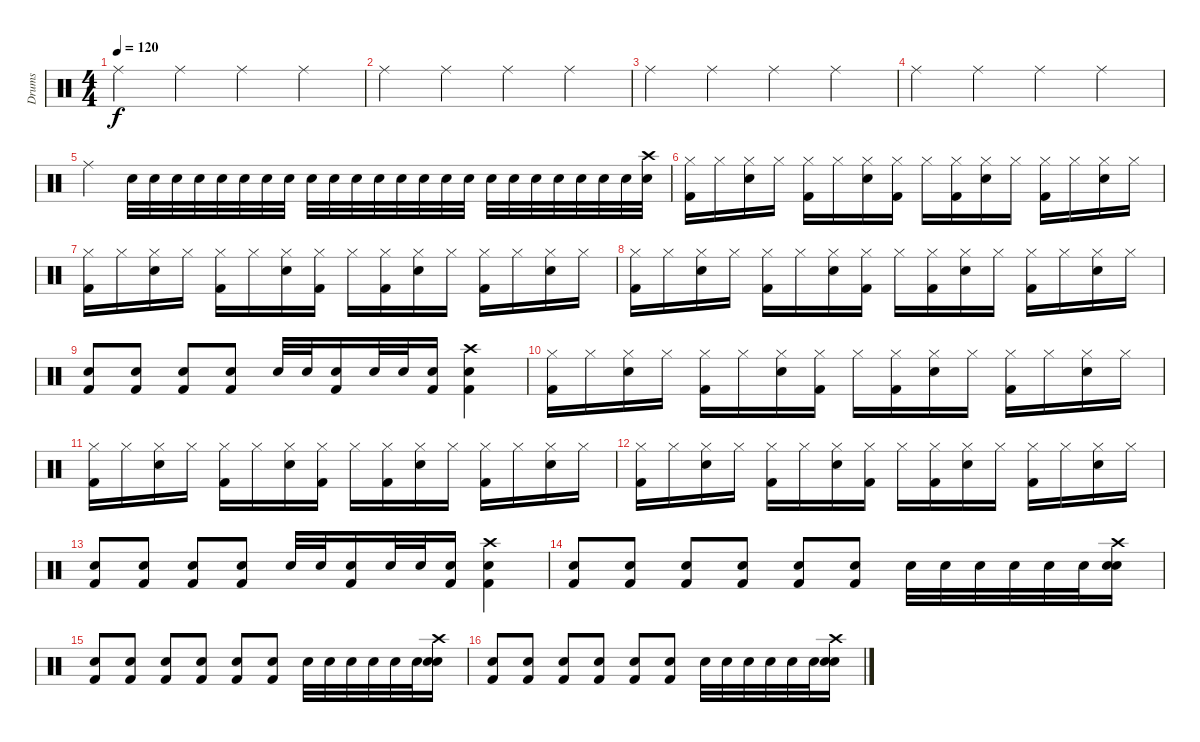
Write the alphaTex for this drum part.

\track ("Drums" "Drums") {instrument percussion}
\staff {score}
\articulation defaults
\ts (4 4)
\tempo 120
\clef neutral
\ks c "Ride (middle)".4{dy f} "Ride (middle)".4 "Ride (middle)".4 "Ride (middle)".4
|
"Ride (middle)".4 "Ride (middle)".4 "Ride (middle)".4 "Ride (middle)".4 |
"Ride (middle)".4 "Ride (middle)".4 "Ride (middle)".4 "Ride (middle)".4 |
"Ride (middle)".4 "Ride (middle)".4 "Ride (middle)".4 "Ride (middle)".4 |
"Ride (middle)".4 "Snare (hit) 2".32{volume 4} "Snare (hit) 2".32{volume 6} "Snare (hit) 2".32{volume 8} "Snare (hit) 2".32{volume 9} "Snare (hit) 2".32{volume 10} "Snare (hit) 2".32{volume 12} "Snare (hit) 2".32{volume 14} "Snare (hit) 2".32{volume 16} "Snare (hit) 2".32 "Snare (hit) 2".32 "Snare (hit) 2".32 "Snare (hit) 2".32 "Snare (hit) 2".32 "Snare (hit) 2".32 "Snare (hit) 2".32 "Snare (hit) 2".32 "Snare (hit) 2".32 "Snare (hit) 2".32 "Snare (hit) 2".32 "Snare (hit) 2".32 "Snare (hit) 2".32 "Snare (hit) 2".32 "Snare (hit) 2".32 ("Crash high (hit)" "Snare (hit) 2").32 |
("Hi-Hat (closed)" "Kick (hit) 2").16 "Hi-Hat (closed)".16 ("Hi-Hat (closed)" "Electric Snare (hit)").16 "Hi-Hat (closed)".16 ("Hi-Hat (closed)" "Kick (hit) 2").16 "Hi-Hat (closed)".16 ("Hi-Hat (closed)" "Electric Snare (hit)").16 ("Hi-Hat (closed)" "Kick (hit) 2").16 "Hi-Hat (closed)".16 ("Hi-Hat (closed)" "Kick (hit) 2").16 ("Hi-Hat (closed)" "Electric Snare (hit)").16 "Hi-Hat (closed)".16 ("Hi-Hat (closed)" "Kick (hit) 2").16 "Hi-Hat (closed)".16 ("Hi-Hat (closed)" "Electric Snare (hit)").16 "Hi-Hat (closed)".16 |
("Hi-Hat (closed)" "Kick (hit) 2").16 "Hi-Hat (closed)".16 ("Hi-Hat (closed)" "Electric Snare (hit)").16 "Hi-Hat (closed)".16 ("Hi-Hat (closed)" "Kick (hit) 2").16 "Hi-Hat (closed)".16 ("Hi-Hat (closed)" "Electric Snare (hit)").16 ("Hi-Hat (closed)" "Kick (hit) 2").16 "Hi-Hat (closed)".16 ("Hi-Hat (closed)" "Kick (hit) 2").16 ("Hi-Hat (closed)" "Electric Snare (hit)").16 "Hi-Hat (closed)".16 ("Hi-Hat (closed)" "Kick (hit) 2").16 "Hi-Hat (closed)".16 ("Hi-Hat (closed)" "Electric Snare (hit)").16 "Hi-Hat (closed)".16 |
("Hi-Hat (closed)" "Kick (hit) 2").16 "Hi-Hat (closed)".16 ("Hi-Hat (closed)" "Electric Snare (hit)").16 "Hi-Hat (closed)".16 ("Hi-Hat (closed)" "Kick (hit) 2").16 "Hi-Hat (closed)".16 ("Hi-Hat (closed)" "Electric Snare (hit)").16 ("Hi-Hat (closed)" "Kick (hit) 2").16 "Hi-Hat (closed)".16 ("Hi-Hat (closed)" "Kick (hit) 2").16 ("Hi-Hat (closed)" "Electric Snare (hit)").16 "Hi-Hat (closed)".16 ("Hi-Hat (closed)" "Kick (hit) 2").16 "Hi-Hat (closed)".16 ("Hi-Hat (closed)" "Electric Snare (hit)").16 "Hi-Hat (closed)".16 |
("Electric Snare (hit)" "Kick (hit) 2").8 ("Electric Snare (hit)" "Kick (hit) 2").8 ("Electric Snare (hit)" "Kick (hit) 2").8 ("Electric Snare (hit)" "Kick (hit) 2").8 "Snare (hit) 2".32 "Snare (hit) 2".32 ("Electric Snare (hit)" "Kick (hit) 2").16 "Snare (hit) 2".32 "Snare (hit) 2".32 ("Electric Snare (hit)" "Kick (hit) 2").16 ("Crash high (hit)" "Electric Snare (hit)" "Kick (hit) 2").4 |
("Hi-Hat (closed)" "Kick (hit) 2").16 "Hi-Hat (closed)".16 ("Hi-Hat (closed)" "Electric Snare (hit)").16 "Hi-Hat (closed)".16 ("Hi-Hat (closed)" "Kick (hit) 2").16 "Hi-Hat (closed)".16 ("Hi-Hat (closed)" "Electric Snare (hit)").16 ("Hi-Hat (closed)" "Kick (hit) 2").16 "Hi-Hat (closed)".16 ("Hi-Hat (closed)" "Kick (hit) 2").16 ("Hi-Hat (closed)" "Electric Snare (hit)").16 "Hi-Hat (closed)".16 ("Hi-Hat (closed)" "Kick (hit) 2").16 "Hi-Hat (closed)".16 ("Hi-Hat (closed)" "Electric Snare (hit)").16 "Hi-Hat (closed)".16 |
("Hi-Hat (closed)" "Kick (hit) 2").16 "Hi-Hat (closed)".16 ("Hi-Hat (closed)" "Electric Snare (hit)").16 "Hi-Hat (closed)".16 ("Hi-Hat (closed)" "Kick (hit) 2").16 "Hi-Hat (closed)".16 ("Hi-Hat (closed)" "Electric Snare (hit)").16 ("Hi-Hat (closed)" "Kick (hit) 2").16 "Hi-Hat (closed)".16 ("Hi-Hat (closed)" "Kick (hit) 2").16 ("Hi-Hat (closed)" "Electric Snare (hit)").16 "Hi-Hat (closed)".16 ("Hi-Hat (closed)" "Kick (hit) 2").16 "Hi-Hat (closed)".16 ("Hi-Hat (closed)" "Electric Snare (hit)").16 "Hi-Hat (closed)".16 |
("Hi-Hat (closed)" "Kick (hit) 2").16 "Hi-Hat (closed)".16 ("Hi-Hat (closed)" "Electric Snare (hit)").16 "Hi-Hat (closed)".16 ("Hi-Hat (closed)" "Kick (hit) 2").16 "Hi-Hat (closed)".16 ("Hi-Hat (closed)" "Electric Snare (hit)").16 ("Hi-Hat (closed)" "Kick (hit) 2").16 "Hi-Hat (closed)".16 ("Hi-Hat (closed)" "Kick (hit) 2").16 ("Hi-Hat (closed)" "Electric Snare (hit)").16 "Hi-Hat (closed)".16 ("Hi-Hat (closed)" "Kick (hit) 2").16 "Hi-Hat (closed)".16 ("Hi-Hat (closed)" "Electric Snare (hit)").16 "Hi-Hat (closed)".16 |
("Electric Snare (hit)" "Kick (hit) 2").8 ("Electric Snare (hit)" "Kick (hit) 2").8 ("Electric Snare (hit)" "Kick (hit) 2").8 ("Electric Snare (hit)" "Kick (hit) 2").8 "Snare (hit) 2".32 "Snare (hit) 2".32 ("Electric Snare (hit)" "Kick (hit) 2").16 "Snare (hit) 2".32 "Snare (hit) 2".32 ("Electric Snare (hit)" "Kick (hit) 2").16 ("Crash high (hit)" "Electric Snare (hit)" "Kick (hit) 2").4 |
("Electric Snare (hit)" "Kick (hit) 2").8 ("Electric Snare (hit)" "Kick (hit) 2").8 ("Electric Snare (hit)" "Kick (hit) 2").8 ("Electric Snare (hit)" "Kick (hit) 2").8 ("Electric Snare (hit)" "Kick (hit) 2").8 ("Electric Snare (hit)" "Kick (hit) 2").8 "Snare (hit) 2".32 "Snare (hit) 2".32 "Snare (hit) 2".32 "Snare (hit) 2".32 "Snare (hit) 2".32 "Snare (hit) 2".32 ("Crash high (hit)" "Electric Snare (hit)" "Snare (hit) 2").16 |
("Electric Snare (hit)" "Kick (hit) 2").8 ("Electric Snare (hit)" "Kick (hit) 2").8 ("Electric Snare (hit)" "Kick (hit) 2").8 ("Electric Snare (hit)" "Kick (hit) 2").8 ("Electric Snare (hit)" "Kick (hit) 2").8 ("Electric Snare (hit)" "Kick (hit) 2").8 "Snare (hit) 2".32 "Snare (hit) 2".32 "Snare (hit) 2".32 "Snare (hit) 2".32 "Snare (hit) 2".32 "Snare (hit) 2".32 ("Crash high (hit)" "Electric Snare (hit)" "Snare (hit) 2").16 |
("Electric Snare (hit)" "Kick (hit) 2").8 ("Electric Snare (hit)" "Kick (hit) 2").8 ("Electric Snare (hit)" "Kick (hit) 2").8 ("Electric Snare (hit)" "Kick (hit) 2").8 ("Electric Snare (hit)" "Kick (hit) 2").8 ("Electric Snare (hit)" "Kick (hit) 2").8 "Snare (hit) 2".32 "Snare (hit) 2".32 "Snare (hit) 2".32 "Snare (hit) 2".32 "Snare (hit) 2".32 "Snare (hit) 2".32 ("Crash high (hit)" "Electric Snare (hit)" "Snare (hit) 2").16
